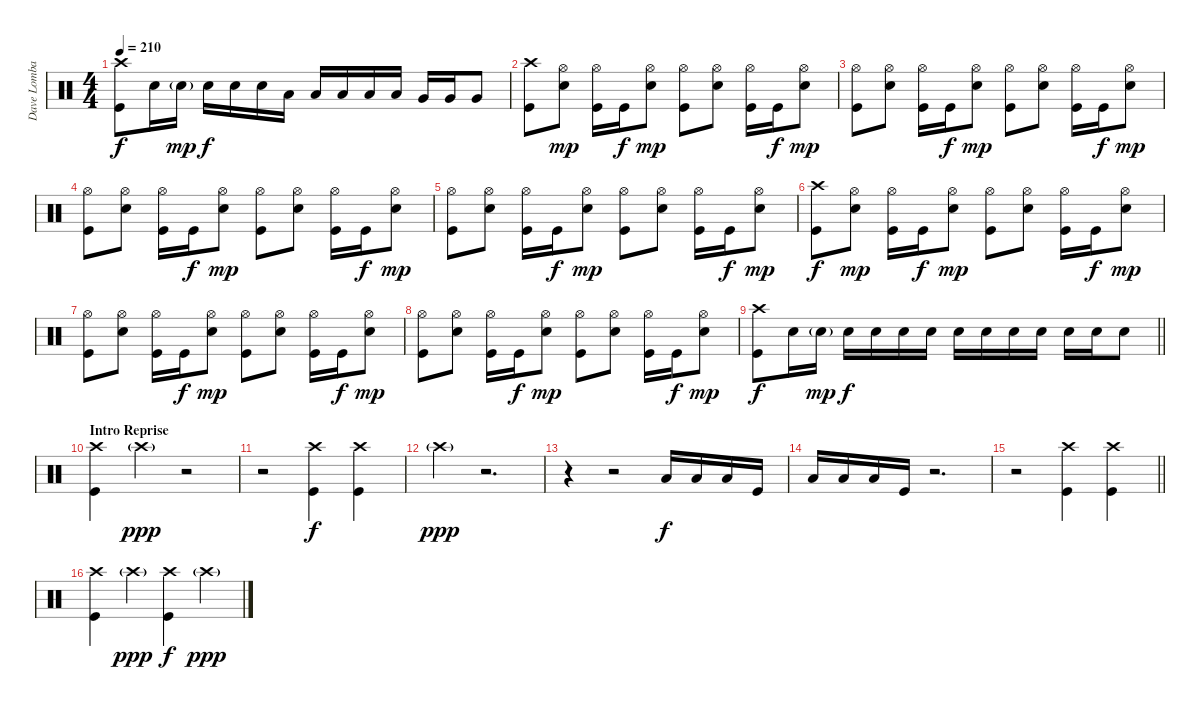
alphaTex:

\track ("Dave Lombardo" "Dave Lomba") {instrument percussion}
\staff {score}
\articulation defaults
\ts (4 4)
\tempo 210
\clef neutral
\ks c
("Crash high (hit)" "Kick (hit)").8{dy f} "Electric Snare (hit)".16 "Electric Snare (hit)"{g}.16{dy mp} "Electric Snare (hit)".16{dy f} "Electric Snare (hit)".16 "Electric Snare (hit)".16 "Low Tom (hit)".16 "Low Tom (hit)".16 "Low Tom (hit)".16 "Low Tom (hit)".16 "Low Tom (hit)".16 "Very Low Tom (hit)".16 "Very Low Tom (hit)".16 "Very Low Tom (hit)".8 |
("Crash high (hit)" "Kick (hit)").8 ("Hi-Hat (open)" "Electric Snare (hit)").8{dy mp} ("Hi-Hat (open)" "Kick (hit)").16 "Kick (hit)".16{dy f} ("Hi-Hat (open)" "Electric Snare (hit)").8{dy mp} ("Hi-Hat (open)" "Kick (hit)").8 ("Hi-Hat (open)" "Electric Snare (hit)").8 ("Hi-Hat (open)" "Kick (hit)").16 "Kick (hit)".16{dy f} ("Hi-Hat (open)" "Electric Snare (hit)").8{dy mp} |
("Hi-Hat (open)" "Kick (hit)").8 ("Hi-Hat (open)" "Electric Snare (hit)").8 ("Hi-Hat (open)" "Kick (hit)").16 "Kick (hit)".16{dy f} ("Hi-Hat (open)" "Electric Snare (hit)").8{dy mp} ("Hi-Hat (open)" "Kick (hit)").8 ("Hi-Hat (open)" "Electric Snare (hit)").8 ("Hi-Hat (open)" "Kick (hit)").16 "Kick (hit)".16{dy f} ("Hi-Hat (open)" "Electric Snare (hit)").8{dy mp} |
("Hi-Hat (open)" "Kick (hit)").8 ("Hi-Hat (open)" "Electric Snare (hit)").8 ("Hi-Hat (open)" "Kick (hit)").16 "Kick (hit)".16{dy f} ("Hi-Hat (open)" "Electric Snare (hit)").8{dy mp} ("Hi-Hat (open)" "Kick (hit)").8 ("Hi-Hat (open)" "Electric Snare (hit)").8 ("Hi-Hat (open)" "Kick (hit)").16 "Kick (hit)".16{dy f} ("Hi-Hat (open)" "Electric Snare (hit)").8{dy mp} |
("Hi-Hat (open)" "Kick (hit)").8 ("Hi-Hat (open)" "Electric Snare (hit)").8 ("Hi-Hat (open)" "Kick (hit)").16 "Kick (hit)".16{dy f} ("Hi-Hat (open)" "Electric Snare (hit)").8{dy mp} ("Hi-Hat (open)" "Kick (hit)").8 ("Hi-Hat (open)" "Electric Snare (hit)").8 ("Hi-Hat (open)" "Kick (hit)").16 "Kick (hit)".16{dy f} ("Hi-Hat (open)" "Electric Snare (hit)").8{dy mp} |
("Crash high (hit)" "Kick (hit)").8{dy f} ("Hi-Hat (open)" "Electric Snare (hit)").8{dy mp} ("Hi-Hat (open)" "Kick (hit)").16 "Kick (hit)".16{dy f} ("Hi-Hat (open)" "Electric Snare (hit)").8{dy mp} ("Hi-Hat (open)" "Kick (hit)").8 ("Hi-Hat (open)" "Electric Snare (hit)").8 ("Hi-Hat (open)" "Kick (hit)").16 "Kick (hit)".16{dy f} ("Hi-Hat (open)" "Electric Snare (hit)").8{dy mp} |
("Hi-Hat (open)" "Kick (hit)").8 ("Hi-Hat (open)" "Electric Snare (hit)").8 ("Hi-Hat (open)" "Kick (hit)").16 "Kick (hit)".16{dy f} ("Hi-Hat (open)" "Electric Snare (hit)").8{dy mp} ("Hi-Hat (open)" "Kick (hit)").8 ("Hi-Hat (open)" "Electric Snare (hit)").8 ("Hi-Hat (open)" "Kick (hit)").16 "Kick (hit)".16{dy f} ("Hi-Hat (open)" "Electric Snare (hit)").8{dy mp} |
("Hi-Hat (open)" "Kick (hit)").8 ("Hi-Hat (open)" "Electric Snare (hit)").8 ("Hi-Hat (open)" "Kick (hit)").16 "Kick (hit)".16{dy f} ("Hi-Hat (open)" "Electric Snare (hit)").8{dy mp} ("Hi-Hat (open)" "Kick (hit)").8 ("Hi-Hat (open)" "Electric Snare (hit)").8 ("Hi-Hat (open)" "Kick (hit)").16 "Kick (hit)".16{dy f} ("Hi-Hat (open)" "Electric Snare (hit)").8{dy mp} |
\barLineRight lightlight
("Crash high (hit)" "Kick (hit)").8{dy f} "Electric Snare (hit)".16 "Electric Snare (hit)"{g}.16{dy mp} "Electric Snare (hit)".16{dy f} "Electric Snare (hit)".16 "Electric Snare (hit)".16 "Electric Snare (hit)".16 "Electric Snare (hit)".16 "Electric Snare (hit)".16 "Electric Snare (hit)".16 "Electric Snare (hit)".16 "Electric Snare (hit)".16 "Electric Snare (hit)".16 "Electric Snare (hit)".8 |
\section ("" "Intro Reprise")
("Crash high (hit)" "Kick (hit)").4 "Crash high (hit)"{g}.4{dy ppp} r.2 |
r.2 ("Crash high (hit)" "Kick (hit)").4{dy f} ("Crash high (hit)" "Kick (hit)").4 |
"Crash high (hit)"{g}.4{dy ppp} r.2{d} |
r.4 r.2 "Low Floor Tom (hit)".16{dy f} "Low Floor Tom (hit)".16 "Low Floor Tom (hit)".16 "Kick (hit)".16 |
"Low Floor Tom (hit)".16 "Low Floor Tom (hit)".16 "Low Floor Tom (hit)".16 "Kick (hit)".16 r.2{d} |
\barLineRight lightlight
r.2 ("Crash high (hit)" "Kick (hit)").4 ("Crash high (hit)" "Kick (hit)").4 |
\section ("" "")
("Crash high (hit)" "Kick (hit)").4 "Crash high (hit)"{g}.4{dy ppp} ("Crash high (hit)" "Kick (hit)").4{dy f} "Crash high (hit)"{g}.4{dy ppp}
